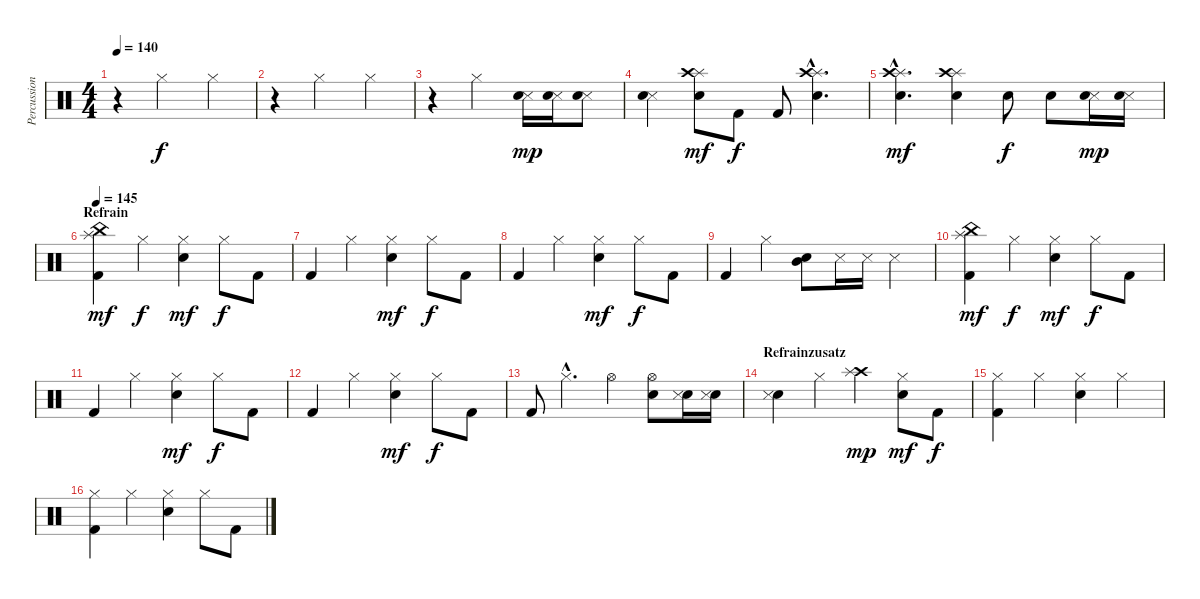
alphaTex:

\track ("Percussion" "Percussion") {instrument percussion}
\staff {score}
\articulation defaults
\ts (4 4)
\tempo 140
\clef neutral
\ks c
r.4{dy f} "Hi-Hat (closed)".2 "Hi-Hat (closed)".4 |
r.4 "Hi-Hat (closed)".2 "Hi-Hat (closed)".4 |
r.4 "Hi-Hat (closed)".2 ("Snare (side stick) 3" "Electric Snare (hit)").16{dy mp} ("Snare (side stick) 3" "Electric Snare (hit)").16 ("Snare (side stick) 3" "Electric Snare (hit)").8 |
("Snare (side stick) 3" "Electric Snare (hit)").4 ("Splash (hit)" "Crash high (hit)" "Electric Snare (hit)").8{dy mf} "Kick (hit) 2".8{dy f} "Kick (hit) 2".8 ("Splash (hit)"{hac} "Crash high (hit)"{hac} "Electric Snare (hit)"{hac}).4{d} |
("Splash (hit)"{hac} "Crash high (hit)"{hac} "Electric Snare (hit)"{hac}).4{d dy mf} ("Splash (hit)" "Crash high (hit)" "Electric Snare (hit)").4 "Electric Snare (hit)".8{dy f} "Electric Snare (hit)".8 ("Snare (side stick) 3" "Electric Snare (hit)").16{dy mp} ("Snare (side stick) 3" "Electric Snare (hit)").16 |
\section ("" "Refrain")
\tempo 145
("Splash (hit)" "China (hit)" "Kick (hit) 2").4{dy mf} "Hi-Hat (closed)".4{dy f} ("Hi-Hat (closed)" "Snare (hit) 2").4{dy mf} "Hi-Hat (closed)".8{dy f} "Kick (hit) 2".8 |
"Kick (hit) 2".4 "Hi-Hat (closed)".4 ("Hi-Hat (closed)" "Snare (hit) 2").4{dy mf} "Hi-Hat (closed)".8{dy f} "Kick (hit) 2".8 |
"Kick (hit) 2".4 "Hi-Hat (closed)".4 ("Hi-Hat (closed)" "Snare (hit) 2").4{dy mf} "Hi-Hat (closed)".8{dy f} "Kick (hit) 2".8 |
"Kick (hit) 2".4 "Hi-Hat (closed)".4 ("Mid Tom (hit)" "Electric Snare (hit)").8 "Snare (side stick) 3".16 "Snare (side stick) 3".16 "Snare (side stick) 3".4 |
("Splash (hit)" "China (hit)" "Kick (hit) 2").4{dy mf} "Hi-Hat (closed)".4{dy f} ("Hi-Hat (closed)" "Snare (hit) 2").4{dy mf} "Hi-Hat (closed)".8{dy f} "Kick (hit) 2".8 |
"Kick (hit) 2".4 "Hi-Hat (closed)".4 ("Hi-Hat (closed)" "Snare (hit) 2").4{dy mf} "Hi-Hat (closed)".8{dy f} "Kick (hit) 2".8 |
"Kick (hit) 2".4 "Hi-Hat (closed)".4 ("Hi-Hat (closed)" "Snare (hit) 2").4{dy mf} "Hi-Hat (closed)".8{dy f} "Kick (hit) 2".8 |
"Kick (hit) 2".8 "Hi-Hat (closed)"{hac}.4{d} "Hi-Hat (open)".4 ("Hi-Hat (open)" "Electric Snare (hit)").8 ("Electric Snare (hit)" "Snare (side stick) 3").16 ("Electric Snare (hit)" "Snare (side stick) 3").16 |
\section ("" "Refrainzusatz")
("Electric Snare (hit)" "Snare (side stick) 3").4 "Hi-Hat (closed)".4 ("Crash high (hit)" "Splash (hit)").4{dy mp} ("Hi-Hat (closed)" "Snare (hit) 2").8{dy mf} "Kick (hit) 2".8{dy f} |
("Hi-Hat (closed)" "Kick (hit) 2").4 "Hi-Hat (closed)".4 ("Hi-Hat (closed)" "Electric Snare (hit)").4 "Hi-Hat (closed)".4 |
("Hi-Hat (closed)" "Kick (hit) 2").4 "Hi-Hat (closed)".4 ("Hi-Hat (closed)" "Electric Snare (hit)").4 "Hi-Hat (closed)".8 "Kick (hit) 2".8
